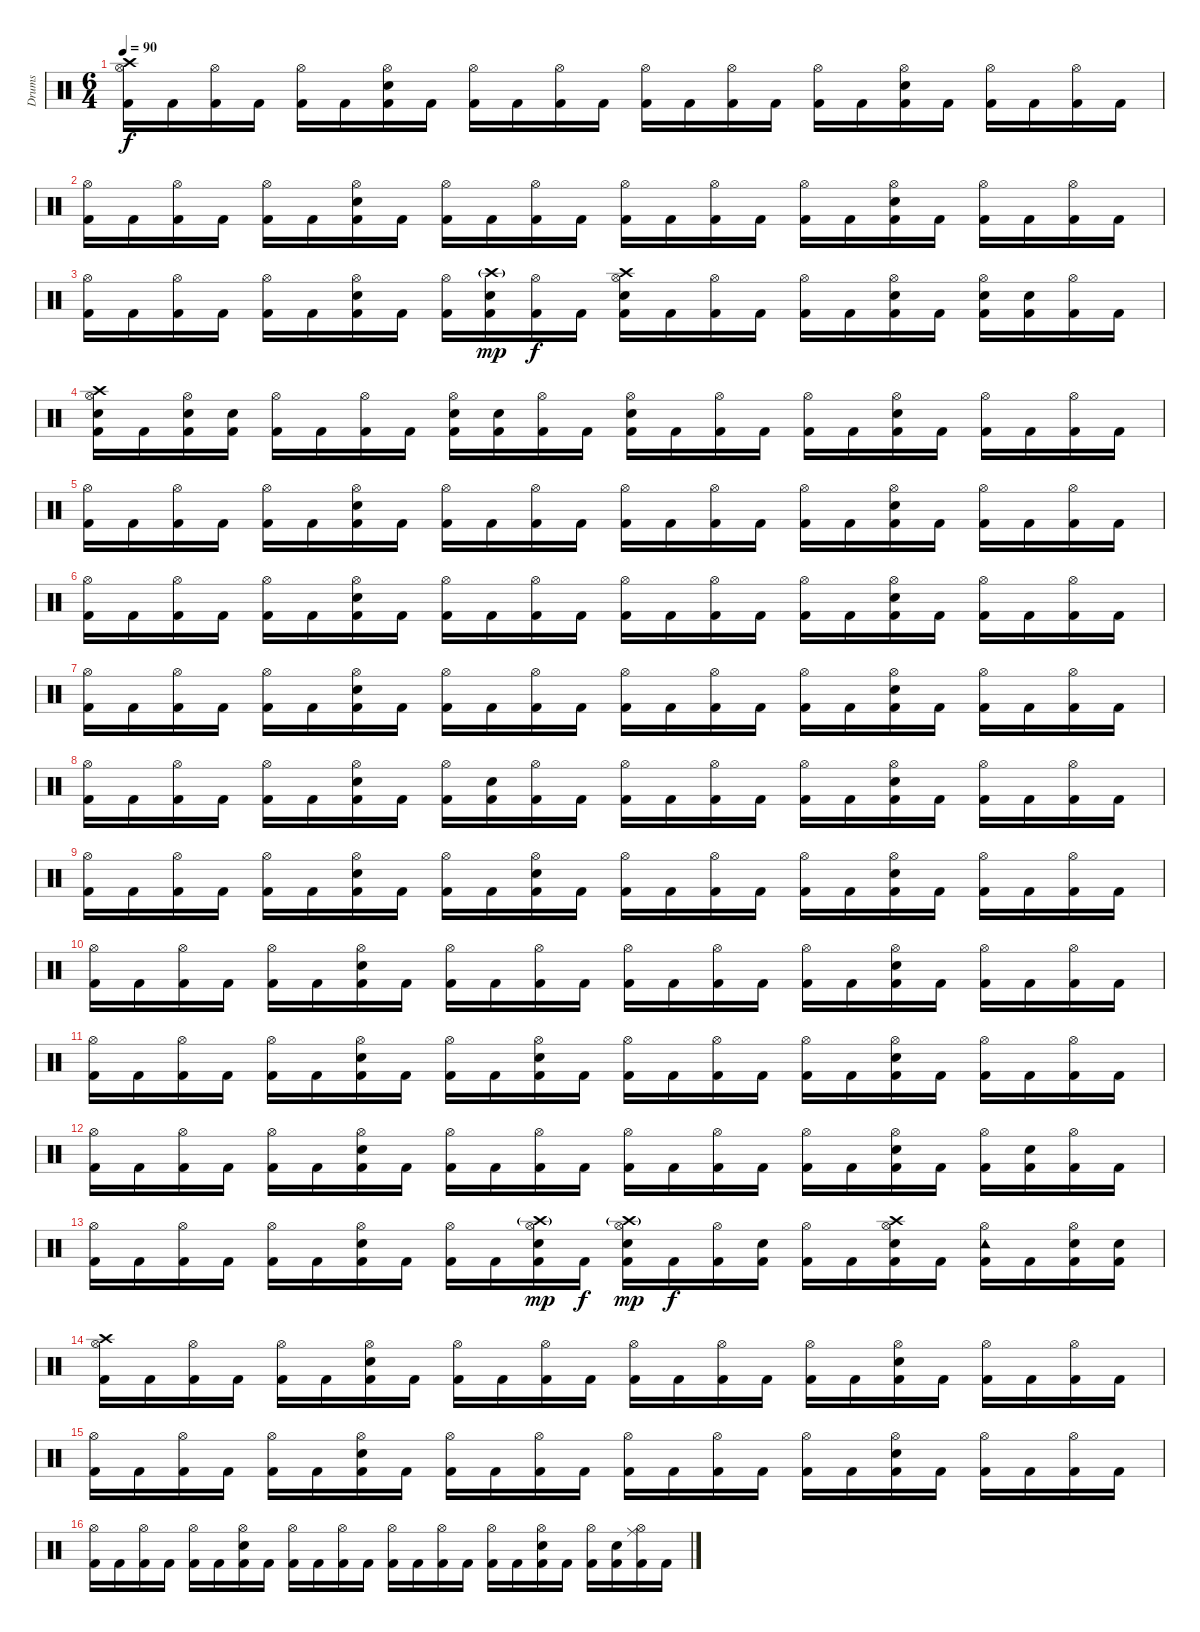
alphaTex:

\track ("Drums" "Drums") {instrument percussion}
\staff {score}
\articulation defaults
\ts (6 4)
\tempo 90
\clef neutral
\ks c
("Crash high (hit)" "Hi-Hat (open)" "Kick (hit) 2").16{dy f} "Kick (hit) 2".16 ("Hi-Hat (open)" "Kick (hit) 2").16 "Kick (hit) 2".16 ("Hi-Hat (open)" "Kick (hit) 2").16 "Kick (hit) 2".16 ("Hi-Hat (open)" "Snare (hit) 2" "Kick (hit) 2").16 "Kick (hit) 2".16 ("Hi-Hat (open)" "Kick (hit) 2").16 "Kick (hit) 2".16 ("Hi-Hat (open)" "Kick (hit) 2").16 "Kick (hit) 2".16 ("Hi-Hat (open)" "Kick (hit) 2").16 "Kick (hit) 2".16 ("Hi-Hat (open)" "Kick (hit) 2").16 "Kick (hit) 2".16 ("Hi-Hat (open)" "Kick (hit) 2").16 "Kick (hit) 2".16 ("Hi-Hat (open)" "Snare (hit) 2" "Kick (hit) 2").16 "Kick (hit) 2".16 ("Hi-Hat (open)" "Kick (hit) 2").16 "Kick (hit) 2".16 ("Hi-Hat (open)" "Kick (hit) 2").16 "Kick (hit) 2".16 |
("Hi-Hat (open)" "Kick (hit) 2").16 "Kick (hit) 2".16 ("Hi-Hat (open)" "Kick (hit) 2").16 "Kick (hit) 2".16 ("Hi-Hat (open)" "Kick (hit) 2").16 "Kick (hit) 2".16 ("Hi-Hat (open)" "Snare (hit) 2" "Kick (hit) 2").16 "Kick (hit) 2".16 ("Hi-Hat (open)" "Kick (hit) 2").16 "Kick (hit) 2".16 ("Hi-Hat (open)" "Kick (hit) 2").16 "Kick (hit) 2".16 ("Hi-Hat (open)" "Kick (hit) 2").16 "Kick (hit) 2".16 ("Hi-Hat (open)" "Kick (hit) 2").16 "Kick (hit) 2".16 ("Hi-Hat (open)" "Kick (hit) 2").16 "Kick (hit) 2".16 ("Hi-Hat (open)" "Snare (hit) 2" "Kick (hit) 2").16 "Kick (hit) 2".16 ("Hi-Hat (open)" "Kick (hit) 2").16 "Kick (hit) 2".16 ("Hi-Hat (open)" "Kick (hit) 2").16 "Kick (hit) 2".16 |
("Hi-Hat (open)" "Kick (hit) 2").16 "Kick (hit) 2".16 ("Hi-Hat (open)" "Kick (hit) 2").16 "Kick (hit) 2".16 ("Hi-Hat (open)" "Kick (hit) 2").16 "Kick (hit) 2".16 ("Hi-Hat (open)" "Snare (hit) 2" "Kick (hit) 2").16 "Kick (hit) 2".16 ("Hi-Hat (open)" "Kick (hit) 2").16 ("Crash high (hit)"{g} "Snare (hit) 2" "Kick (hit) 2").16{dy mp} ("Hi-Hat (open)" "Kick (hit) 2").16{dy f} "Kick (hit) 2".16 ("Crash high (hit)" "Hi-Hat (open)" "Snare (hit) 2" "Kick (hit) 2").16 "Kick (hit) 2".16 ("Hi-Hat (open)" "Kick (hit) 2").16 "Kick (hit) 2".16 ("Hi-Hat (open)" "Kick (hit) 2").16 "Kick (hit) 2".16 ("Hi-Hat (open)" "Snare (hit) 2" "Kick (hit) 2").16 "Kick (hit) 2".16 ("Hi-Hat (open)" "Snare (hit) 2" "Kick (hit) 2").16 ("Snare (hit) 2" "Kick (hit) 2").16 ("Hi-Hat (open)" "Kick (hit) 2").16 "Kick (hit) 2".16 |
("Crash high (hit)" "Hi-Hat (open)" "Snare (hit) 2" "Kick (hit) 2").16 "Kick (hit) 2".16 ("Hi-Hat (open)" "Snare (hit) 2" "Kick (hit) 2").16 ("Snare (hit) 2" "Kick (hit) 2").16 ("Hi-Hat (open)" "Kick (hit) 2").16 "Kick (hit) 2".16 ("Hi-Hat (open)" "Kick (hit) 2").16 "Kick (hit) 2".16 ("Hi-Hat (open)" "Snare (hit) 2" "Kick (hit) 2").16 ("Snare (hit) 2" "Kick (hit) 2").16 ("Hi-Hat (open)" "Kick (hit) 2").16 "Kick (hit) 2".16 ("Hi-Hat (open)" "Snare (hit) 2" "Kick (hit) 2").16 "Kick (hit) 2".16 ("Hi-Hat (open)" "Kick (hit) 2").16 "Kick (hit) 2".16 ("Hi-Hat (open)" "Kick (hit) 2").16 "Kick (hit) 2".16 ("Hi-Hat (open)" "Snare (hit) 2" "Kick (hit) 2").16 "Kick (hit) 2".16 ("Hi-Hat (open)" "Kick (hit) 2").16 "Kick (hit) 2".16 ("Hi-Hat (open)" "Kick (hit) 2").16 "Kick (hit) 2".16 |
("Hi-Hat (open)" "Kick (hit) 2").16 "Kick (hit) 2".16 ("Hi-Hat (open)" "Kick (hit) 2").16 "Kick (hit) 2".16 ("Hi-Hat (open)" "Kick (hit) 2").16 "Kick (hit) 2".16 ("Hi-Hat (open)" "Snare (hit) 2" "Kick (hit) 2").16 "Kick (hit) 2".16 ("Hi-Hat (open)" "Kick (hit) 2").16 "Kick (hit) 2".16 ("Hi-Hat (open)" "Kick (hit) 2").16 "Kick (hit) 2".16 ("Hi-Hat (open)" "Kick (hit) 2").16 "Kick (hit) 2".16 ("Hi-Hat (open)" "Kick (hit) 2").16 "Kick (hit) 2".16 ("Hi-Hat (open)" "Kick (hit) 2").16 "Kick (hit) 2".16 ("Hi-Hat (open)" "Snare (hit) 2" "Kick (hit) 2").16 "Kick (hit) 2".16 ("Hi-Hat (open)" "Kick (hit) 2").16 "Kick (hit) 2".16 ("Hi-Hat (open)" "Kick (hit) 2").16 "Kick (hit) 2".16 |
("Hi-Hat (open)" "Kick (hit) 2").16 "Kick (hit) 2".16 ("Hi-Hat (open)" "Kick (hit) 2").16 "Kick (hit) 2".16 ("Hi-Hat (open)" "Kick (hit) 2").16 "Kick (hit) 2".16 ("Hi-Hat (open)" "Snare (hit) 2" "Kick (hit) 2").16 "Kick (hit) 2".16 ("Hi-Hat (open)" "Kick (hit) 2").16 "Kick (hit) 2".16 ("Hi-Hat (open)" "Kick (hit) 2").16 "Kick (hit) 2".16 ("Hi-Hat (open)" "Kick (hit) 2").16 "Kick (hit) 2".16 ("Hi-Hat (open)" "Kick (hit) 2").16 "Kick (hit) 2".16 ("Hi-Hat (open)" "Kick (hit) 2").16 "Kick (hit) 2".16 ("Hi-Hat (open)" "Snare (hit) 2" "Kick (hit) 2").16 "Kick (hit) 2".16 ("Hi-Hat (open)" "Kick (hit) 2").16 "Kick (hit) 2".16 ("Hi-Hat (open)" "Kick (hit) 2").16 "Kick (hit) 2".16 |
("Hi-Hat (open)" "Kick (hit) 2").16 "Kick (hit) 2".16 ("Hi-Hat (open)" "Kick (hit) 2").16 "Kick (hit) 2".16 ("Hi-Hat (open)" "Kick (hit) 2").16 "Kick (hit) 2".16 ("Hi-Hat (open)" "Snare (hit) 2" "Kick (hit) 2").16 "Kick (hit) 2".16 ("Hi-Hat (open)" "Kick (hit) 2").16 "Kick (hit) 2".16 ("Hi-Hat (open)" "Kick (hit) 2").16 "Kick (hit) 2".16 ("Hi-Hat (open)" "Kick (hit) 2").16 "Kick (hit) 2".16 ("Hi-Hat (open)" "Kick (hit) 2").16 "Kick (hit) 2".16 ("Hi-Hat (open)" "Kick (hit) 2").16 "Kick (hit) 2".16 ("Hi-Hat (open)" "Snare (hit) 2" "Kick (hit) 2").16 "Kick (hit) 2".16 ("Hi-Hat (open)" "Kick (hit) 2").16 "Kick (hit) 2".16 ("Hi-Hat (open)" "Kick (hit) 2").16 "Kick (hit) 2".16 |
("Hi-Hat (open)" "Kick (hit) 2").16 "Kick (hit) 2".16 ("Hi-Hat (open)" "Kick (hit) 2").16 "Kick (hit) 2".16 ("Hi-Hat (open)" "Kick (hit) 2").16 "Kick (hit) 2".16 ("Hi-Hat (open)" "Snare (hit) 2" "Kick (hit) 2").16 "Kick (hit) 2".16 ("Hi-Hat (open)" "Kick (hit) 2").16 ("Snare (hit) 2" "Kick (hit) 2").16 ("Hi-Hat (open)" "Kick (hit) 2").16 "Kick (hit) 2".16 ("Hi-Hat (open)" "Kick (hit) 2").16 "Kick (hit) 2".16 ("Hi-Hat (open)" "Kick (hit) 2").16 "Kick (hit) 2".16 ("Hi-Hat (open)" "Kick (hit) 2").16 "Kick (hit) 2".16 ("Hi-Hat (open)" "Snare (hit) 2" "Kick (hit) 2").16 "Kick (hit) 2".16 ("Hi-Hat (open)" "Kick (hit) 2").16 "Kick (hit) 2".16 ("Hi-Hat (open)" "Kick (hit) 2").16 "Kick (hit) 2".16 |
("Hi-Hat (open)" "Kick (hit) 2").16 "Kick (hit) 2".16 ("Hi-Hat (open)" "Kick (hit) 2").16 "Kick (hit) 2".16 ("Hi-Hat (open)" "Kick (hit) 2").16 "Kick (hit) 2".16 ("Hi-Hat (open)" "Snare (hit) 2" "Kick (hit) 2").16 "Kick (hit) 2".16 ("Hi-Hat (open)" "Kick (hit) 2").16 "Kick (hit) 2".16 ("Hi-Hat (open)" "Snare (hit) 2" "Kick (hit) 2").16 "Kick (hit) 2".16 ("Hi-Hat (open)" "Kick (hit) 2").16 "Kick (hit) 2".16 ("Hi-Hat (open)" "Kick (hit) 2").16 "Kick (hit) 2".16 ("Hi-Hat (open)" "Kick (hit) 2").16 "Kick (hit) 2".16 ("Hi-Hat (open)" "Snare (hit) 2" "Kick (hit) 2").16 "Kick (hit) 2".16 ("Hi-Hat (open)" "Kick (hit) 2").16 "Kick (hit) 2".16 ("Hi-Hat (open)" "Kick (hit) 2").16 "Kick (hit) 2".16 |
("Hi-Hat (open)" "Kick (hit) 2").16 "Kick (hit) 2".16 ("Hi-Hat (open)" "Kick (hit) 2").16 "Kick (hit) 2".16 ("Hi-Hat (open)" "Kick (hit) 2").16 "Kick (hit) 2".16 ("Hi-Hat (open)" "Snare (hit) 2" "Kick (hit) 2").16 "Kick (hit) 2".16 ("Hi-Hat (open)" "Kick (hit) 2").16 "Kick (hit) 2".16 ("Hi-Hat (open)" "Kick (hit) 2").16 "Kick (hit) 2".16 ("Hi-Hat (open)" "Kick (hit) 2").16 "Kick (hit) 2".16 ("Hi-Hat (open)" "Kick (hit) 2").16 "Kick (hit) 2".16 ("Hi-Hat (open)" "Kick (hit) 2").16 "Kick (hit) 2".16 ("Hi-Hat (open)" "Snare (hit) 2" "Kick (hit) 2").16 "Kick (hit) 2".16 ("Hi-Hat (open)" "Kick (hit) 2").16 "Kick (hit) 2".16 ("Hi-Hat (open)" "Kick (hit) 2").16 "Kick (hit) 2".16 |
("Hi-Hat (open)" "Kick (hit) 2").16 "Kick (hit) 2".16 ("Hi-Hat (open)" "Kick (hit) 2").16 "Kick (hit) 2".16 ("Hi-Hat (open)" "Kick (hit) 2").16 "Kick (hit) 2".16 ("Hi-Hat (open)" "Snare (hit) 2" "Kick (hit) 2").16 "Kick (hit) 2".16 ("Hi-Hat (open)" "Kick (hit) 2").16 "Kick (hit) 2".16 ("Hi-Hat (open)" "Snare (hit) 2" "Kick (hit) 2").16 "Kick (hit) 2".16 ("Hi-Hat (open)" "Kick (hit) 2").16 "Kick (hit) 2".16 ("Hi-Hat (open)" "Kick (hit) 2").16 "Kick (hit) 2".16 ("Hi-Hat (open)" "Kick (hit) 2").16 "Kick (hit) 2".16 ("Hi-Hat (open)" "Snare (hit) 2" "Kick (hit) 2").16 "Kick (hit) 2".16 ("Hi-Hat (open)" "Kick (hit) 2").16 "Kick (hit) 2".16 ("Hi-Hat (open)" "Kick (hit) 2").16 "Kick (hit) 2".16 |
("Hi-Hat (open)" "Kick (hit) 2").16 "Kick (hit) 2".16 ("Hi-Hat (open)" "Kick (hit) 2").16 "Kick (hit) 2".16 ("Hi-Hat (open)" "Kick (hit) 2").16 "Kick (hit) 2".16 ("Hi-Hat (open)" "Snare (hit) 2" "Kick (hit) 2").16 "Kick (hit) 2".16 ("Hi-Hat (open)" "Kick (hit) 2").16 "Kick (hit) 2".16 ("Hi-Hat (open)" "Kick (hit) 2").16 "Kick (hit) 2".16 ("Hi-Hat (open)" "Kick (hit) 2").16 "Kick (hit) 2".16 ("Hi-Hat (open)" "Kick (hit) 2").16 "Kick (hit) 2".16 ("Hi-Hat (open)" "Kick (hit) 2").16 "Kick (hit) 2".16 ("Hi-Hat (open)" "Snare (hit) 2" "Kick (hit) 2").16 "Kick (hit) 2".16 ("Hi-Hat (open)" "Kick (hit) 2").16 ("Snare (hit) 2" "Kick (hit) 2").16 ("Hi-Hat (open)" "Kick (hit) 2").16 "Kick (hit) 2".16 |
("Hi-Hat (open)" "Kick (hit) 2").16 "Kick (hit) 2".16 ("Hi-Hat (open)" "Kick (hit) 2").16 "Kick (hit) 2".16 ("Hi-Hat (open)" "Kick (hit) 2").16 "Kick (hit) 2".16 ("Hi-Hat (open)" "Snare (hit) 2" "Kick (hit) 2").16 "Kick (hit) 2".16 ("Hi-Hat (open)" "Kick (hit) 2").16 "Kick (hit) 2".16 ("Crash high (hit)"{g} "Hi-Hat (open)" "Snare (hit) 2" "Kick (hit) 2").16{dy mp} "Kick (hit) 2".16{dy f} ("Crash high (hit)"{g} "Hi-Hat (open)" "Snare (hit) 2" "Kick (hit) 2").16{dy mp} "Kick (hit) 2".16{dy f} ("Hi-Hat (open)" "Kick (hit) 2").16 ("Snare (hit) 2" "Kick (hit) 2").16 ("Hi-Hat (open)" "Kick (hit) 2").16 "Kick (hit) 2".16 ("Crash high (hit)" "Hi-Hat (open)" "Snare (hit) 2" "Kick (hit) 2").16 "Kick (hit) 2".16 ("Tambourine (hit)" "Hi-Hat (open)" "Kick (hit) 2").16 "Kick (hit) 2".16 ("Hi-Hat (open)" "Snare (hit) 2" "Kick (hit) 2").16 ("Snare (hit) 2" "Kick (hit) 2").16 |
("Crash high (hit)" "Hi-Hat (open)" "Kick (hit) 2").16 "Kick (hit) 2".16 ("Hi-Hat (open)" "Kick (hit) 2").16 "Kick (hit) 2".16 ("Hi-Hat (open)" "Kick (hit) 2").16 "Kick (hit) 2".16 ("Hi-Hat (open)" "Snare (hit) 2" "Kick (hit) 2").16 "Kick (hit) 2".16 ("Hi-Hat (open)" "Kick (hit) 2").16 "Kick (hit) 2".16 ("Hi-Hat (open)" "Kick (hit) 2").16 "Kick (hit) 2".16 ("Hi-Hat (open)" "Kick (hit) 2").16 "Kick (hit) 2".16 ("Hi-Hat (open)" "Kick (hit) 2").16 "Kick (hit) 2".16 ("Hi-Hat (open)" "Kick (hit) 2").16 "Kick (hit) 2".16 ("Hi-Hat (open)" "Snare (hit) 2" "Kick (hit) 2").16 "Kick (hit) 2".16 ("Hi-Hat (open)" "Kick (hit) 2").16 "Kick (hit) 2".16 ("Hi-Hat (open)" "Kick (hit) 2").16 "Kick (hit) 2".16 |
("Hi-Hat (open)" "Kick (hit) 2").16 "Kick (hit) 2".16 ("Hi-Hat (open)" "Kick (hit) 2").16 "Kick (hit) 2".16 ("Hi-Hat (open)" "Kick (hit) 2").16 "Kick (hit) 2".16 ("Hi-Hat (open)" "Snare (hit) 2" "Kick (hit) 2").16 "Kick (hit) 2".16 ("Hi-Hat (open)" "Kick (hit) 2").16 "Kick (hit) 2".16 ("Hi-Hat (open)" "Kick (hit) 2").16 "Kick (hit) 2".16 ("Hi-Hat (open)" "Kick (hit) 2").16 "Kick (hit) 2".16 ("Hi-Hat (open)" "Kick (hit) 2").16 "Kick (hit) 2".16 ("Hi-Hat (open)" "Kick (hit) 2").16 "Kick (hit) 2".16 ("Hi-Hat (open)" "Snare (hit) 2" "Kick (hit) 2").16 "Kick (hit) 2".16 ("Hi-Hat (open)" "Kick (hit) 2").16 "Kick (hit) 2".16 ("Hi-Hat (open)" "Kick (hit) 2").16 "Kick (hit) 2".16 |
("Hi-Hat (open)" "Kick (hit) 2").16 "Kick (hit) 2".16 ("Hi-Hat (open)" "Kick (hit) 2").16 "Kick (hit) 2".16 ("Hi-Hat (open)" "Kick (hit) 2").16 "Kick (hit) 2".16 ("Hi-Hat (open)" "Snare (hit) 2" "Kick (hit) 2").16 "Kick (hit) 2".16 ("Hi-Hat (open)" "Kick (hit) 2").16 "Kick (hit) 2".16 ("Hi-Hat (open)" "Kick (hit) 2").16 "Kick (hit) 2".16 ("Hi-Hat (open)" "Kick (hit) 2").16 "Kick (hit) 2".16 ("Hi-Hat (open)" "Kick (hit) 2").16 "Kick (hit) 2".16 ("Hi-Hat (open)" "Kick (hit) 2").16 "Kick (hit) 2".16 ("Hi-Hat (open)" "Snare (hit) 2" "Kick (hit) 2").16 "Kick (hit) 2".16 ("Hi-Hat (open)" "Kick (hit) 2").16 ("Snare (hit) 2" "Kick (hit) 2").16 ("Ride (middle)" "Hi-Hat (open)" "Kick (hit) 2").16 "Kick (hit) 2".16
